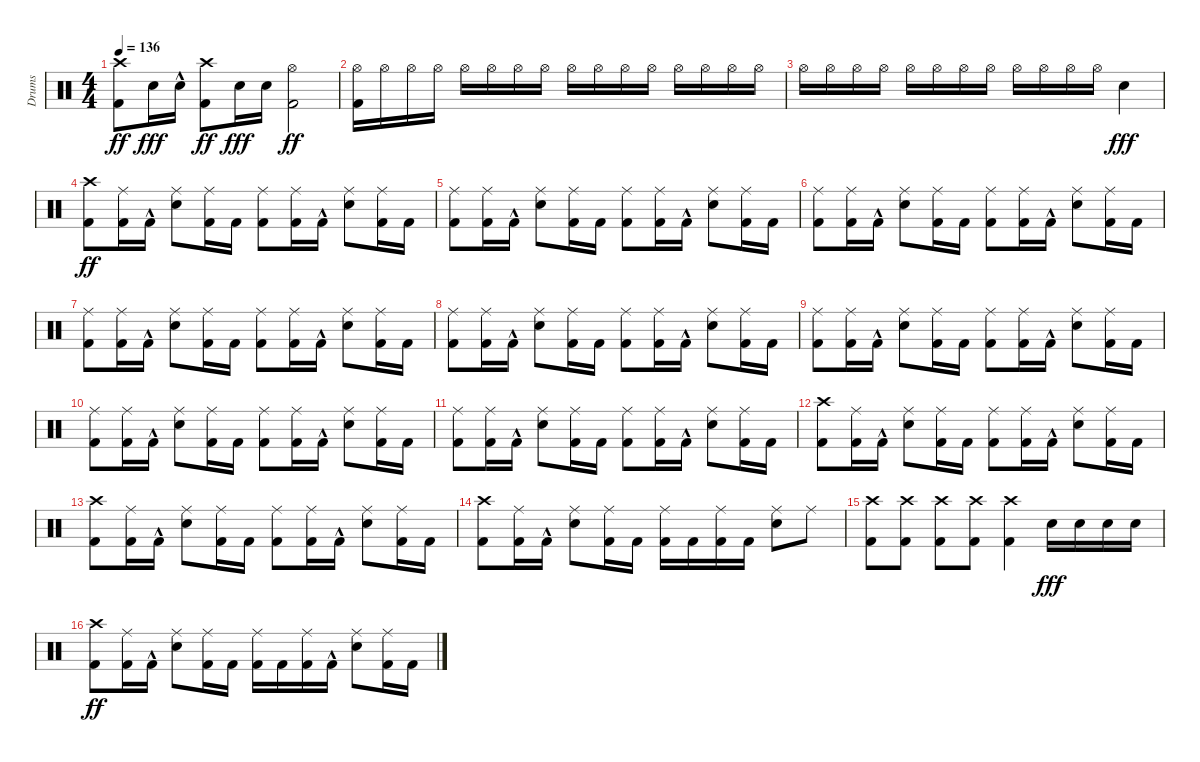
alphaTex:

\track ("Drums" "Drums") {instrument percussion}
\staff {score}
\articulation defaults
\ts (4 4)
\tempo 136
\clef neutral
\ks c
("Kick (hit) 2" "Crash high (hit)").8{dy ff} "Snare (hit) 2".16{dy fff} "Snare (hit) 2"{hac}.16 ("Kick (hit) 2" "Crash high (hit)").8{dy ff} "Snare (hit) 2".16{dy fff} "Snare (hit) 2".16 ("Kick (hit) 2" "Hi-Hat (open)").2{dy ff} |
("Kick (hit) 2" "Hi-Hat (open)").16 "Hi-Hat (open)".16 "Hi-Hat (open)".16 "Hi-Hat (open)".16 "Hi-Hat (open)".16 "Hi-Hat (open)".16 "Hi-Hat (open)".16 "Hi-Hat (open)".16 "Hi-Hat (open)".16 "Hi-Hat (open)".16 "Hi-Hat (open)".16 "Hi-Hat (open)".16 "Hi-Hat (open)".16 "Hi-Hat (open)".16 "Hi-Hat (open)".16 "Hi-Hat (open)".16 |
"Hi-Hat (open)".16 "Hi-Hat (open)".16 "Hi-Hat (open)".16 "Hi-Hat (open)".16 "Hi-Hat (open)".16 "Hi-Hat (open)".16 "Hi-Hat (open)".16 "Hi-Hat (open)".16 "Hi-Hat (open)".16 "Hi-Hat (open)".16 "Hi-Hat (open)".16 "Hi-Hat (open)".16 "Snare (hit) 2".4{dy fff} |
("Kick (hit) 2" "Crash high (hit)").8{dy ff} ("Kick (hit) 2" "Ride (middle)").16 "Kick (hit) 2"{hac}.16 ("Snare (hit) 2" "Ride (middle)").8 ("Kick (hit) 2" "Ride (middle)").16 "Kick (hit) 2".16 ("Kick (hit) 2" "Ride (middle)").8 ("Kick (hit) 2" "Ride (middle)").16 "Kick (hit) 2"{hac}.16 ("Snare (hit) 2" "Ride (middle)").8 ("Kick (hit) 2" "Ride (middle)").16 "Kick (hit) 2".16 |
("Kick (hit) 2" "Ride (middle)").8 ("Kick (hit) 2" "Ride (middle)").16 "Kick (hit) 2"{hac}.16 ("Snare (hit) 2" "Ride (middle)").8 ("Kick (hit) 2" "Ride (middle)").16 "Kick (hit) 2".16 ("Kick (hit) 2" "Ride (middle)").8 ("Kick (hit) 2" "Ride (middle)").16 "Kick (hit) 2"{hac}.16 ("Snare (hit) 2" "Ride (middle)").8 ("Kick (hit) 2" "Ride (middle)").16 "Kick (hit) 2".16 |
("Kick (hit) 2" "Ride (middle)").8 ("Kick (hit) 2" "Ride (middle)").16 "Kick (hit) 2"{hac}.16 ("Snare (hit) 2" "Ride (middle)").8 ("Kick (hit) 2" "Ride (middle)").16 "Kick (hit) 2".16 ("Kick (hit) 2" "Ride (middle)").8 ("Kick (hit) 2" "Ride (middle)").16 "Kick (hit) 2"{hac}.16 ("Snare (hit) 2" "Ride (middle)").8 ("Kick (hit) 2" "Ride (middle)").16 "Kick (hit) 2".16 |
("Kick (hit) 2" "Ride (middle)").8 ("Kick (hit) 2" "Ride (middle)").16 "Kick (hit) 2"{hac}.16 ("Snare (hit) 2" "Ride (middle)").8 ("Kick (hit) 2" "Ride (middle)").16 "Kick (hit) 2".16 ("Kick (hit) 2" "Ride (middle)").8 ("Kick (hit) 2" "Ride (middle)").16 "Kick (hit) 2"{hac}.16 ("Snare (hit) 2" "Ride (middle)").8 ("Kick (hit) 2" "Ride (middle)").16 "Kick (hit) 2".16 |
("Kick (hit) 2" "Ride (middle)").8 ("Kick (hit) 2" "Ride (middle)").16 "Kick (hit) 2"{hac}.16 ("Snare (hit) 2" "Ride (middle)").8 ("Kick (hit) 2" "Ride (middle)").16 "Kick (hit) 2".16 ("Kick (hit) 2" "Ride (middle)").8 ("Kick (hit) 2" "Ride (middle)").16 "Kick (hit) 2"{hac}.16 ("Snare (hit) 2" "Ride (middle)").8 ("Kick (hit) 2" "Ride (middle)").16 "Kick (hit) 2".16 |
("Kick (hit) 2" "Ride (middle)").8 ("Kick (hit) 2" "Ride (middle)").16 "Kick (hit) 2"{hac}.16 ("Snare (hit) 2" "Ride (middle)").8 ("Kick (hit) 2" "Ride (middle)").16 "Kick (hit) 2".16 ("Kick (hit) 2" "Ride (middle)").8 ("Kick (hit) 2" "Ride (middle)").16 "Kick (hit) 2"{hac}.16 ("Snare (hit) 2" "Ride (middle)").8 ("Kick (hit) 2" "Ride (middle)").16 "Kick (hit) 2".16 |
("Kick (hit) 2" "Ride (middle)").8 ("Kick (hit) 2" "Ride (middle)").16 "Kick (hit) 2"{hac}.16 ("Snare (hit) 2" "Ride (middle)").8 ("Kick (hit) 2" "Ride (middle)").16 "Kick (hit) 2".16 ("Kick (hit) 2" "Ride (middle)").8 ("Kick (hit) 2" "Ride (middle)").16 "Kick (hit) 2"{hac}.16 ("Snare (hit) 2" "Ride (middle)").8 ("Kick (hit) 2" "Ride (middle)").16 "Kick (hit) 2".16 |
("Kick (hit) 2" "Ride (middle)").8 ("Kick (hit) 2" "Ride (middle)").16 "Kick (hit) 2"{hac}.16 ("Snare (hit) 2" "Ride (middle)").8 ("Kick (hit) 2" "Ride (middle)").16 "Kick (hit) 2".16 ("Kick (hit) 2" "Ride (middle)").8 ("Kick (hit) 2" "Ride (middle)").16 "Kick (hit) 2"{hac}.16 ("Snare (hit) 2" "Ride (middle)").8 ("Kick (hit) 2" "Ride (middle)").16 "Kick (hit) 2".16 |
("Kick (hit) 2" "Crash high (hit)").8 ("Kick (hit) 2" "Ride (middle)").16 "Kick (hit) 2"{hac}.16 ("Snare (hit) 2" "Ride (middle)").8 ("Kick (hit) 2" "Ride (middle)").16 "Kick (hit) 2".16 ("Kick (hit) 2" "Ride (middle)").8 ("Kick (hit) 2" "Ride (middle)").16 "Kick (hit) 2"{hac}.16 ("Snare (hit) 2" "Ride (middle)").8 ("Kick (hit) 2" "Ride (middle)").16 "Kick (hit) 2".16 |
("Kick (hit) 2" "Crash high (hit)").8 ("Kick (hit) 2" "Ride (middle)").16 "Kick (hit) 2"{hac}.16 ("Snare (hit) 2" "Ride (middle)").8 ("Kick (hit) 2" "Ride (middle)").16 "Kick (hit) 2".16 ("Kick (hit) 2" "Ride (middle)").8 ("Kick (hit) 2" "Ride (middle)").16 "Kick (hit) 2"{hac}.16 ("Snare (hit) 2" "Ride (middle)").8 ("Kick (hit) 2" "Ride (middle)").16 "Kick (hit) 2".16 |
("Kick (hit) 2" "Crash high (hit)").8 ("Kick (hit) 2" "Ride (middle)").16 "Kick (hit) 2"{hac}.16 ("Snare (hit) 2" "Ride (middle)").8 ("Kick (hit) 2" "Ride (middle)").16 "Kick (hit) 2".16 ("Kick (hit) 2" "Ride (middle)").16 "Kick (hit) 2".16 ("Kick (hit) 2" "Ride (middle)").16 "Kick (hit) 2".16 ("Snare (hit) 2" "Ride (middle)").8 "Ride (middle)".8 |
("Kick (hit) 2" "Crash high (hit)").8 ("Kick (hit) 2" "Crash high (hit)").8 ("Kick (hit) 2" "Crash high (hit)").8 ("Kick (hit) 2" "Crash high (hit)").8 ("Kick (hit) 2" "Crash high (hit)").4 "Snare (hit) 2".16{dy fff} "Snare (hit) 2".16 "Snare (hit) 2".16 "Snare (hit) 2".16 |
("Kick (hit) 2" "Crash high (hit)").8{dy ff} ("Kick (hit) 2" "Ride (middle)").16 "Kick (hit) 2"{hac}.16 ("Snare (hit) 2" "Ride (middle)").8 ("Kick (hit) 2" "Ride (middle)").16 "Kick (hit) 2".16 ("Kick (hit) 2" "Ride (middle)").16 "Kick (hit) 2".16 ("Kick (hit) 2" "Ride (middle)").16 "Kick (hit) 2"{hac}.16 ("Snare (hit) 2" "Ride (middle)").8 ("Kick (hit) 2" "Ride (middle)").16 "Kick (hit) 2".16
